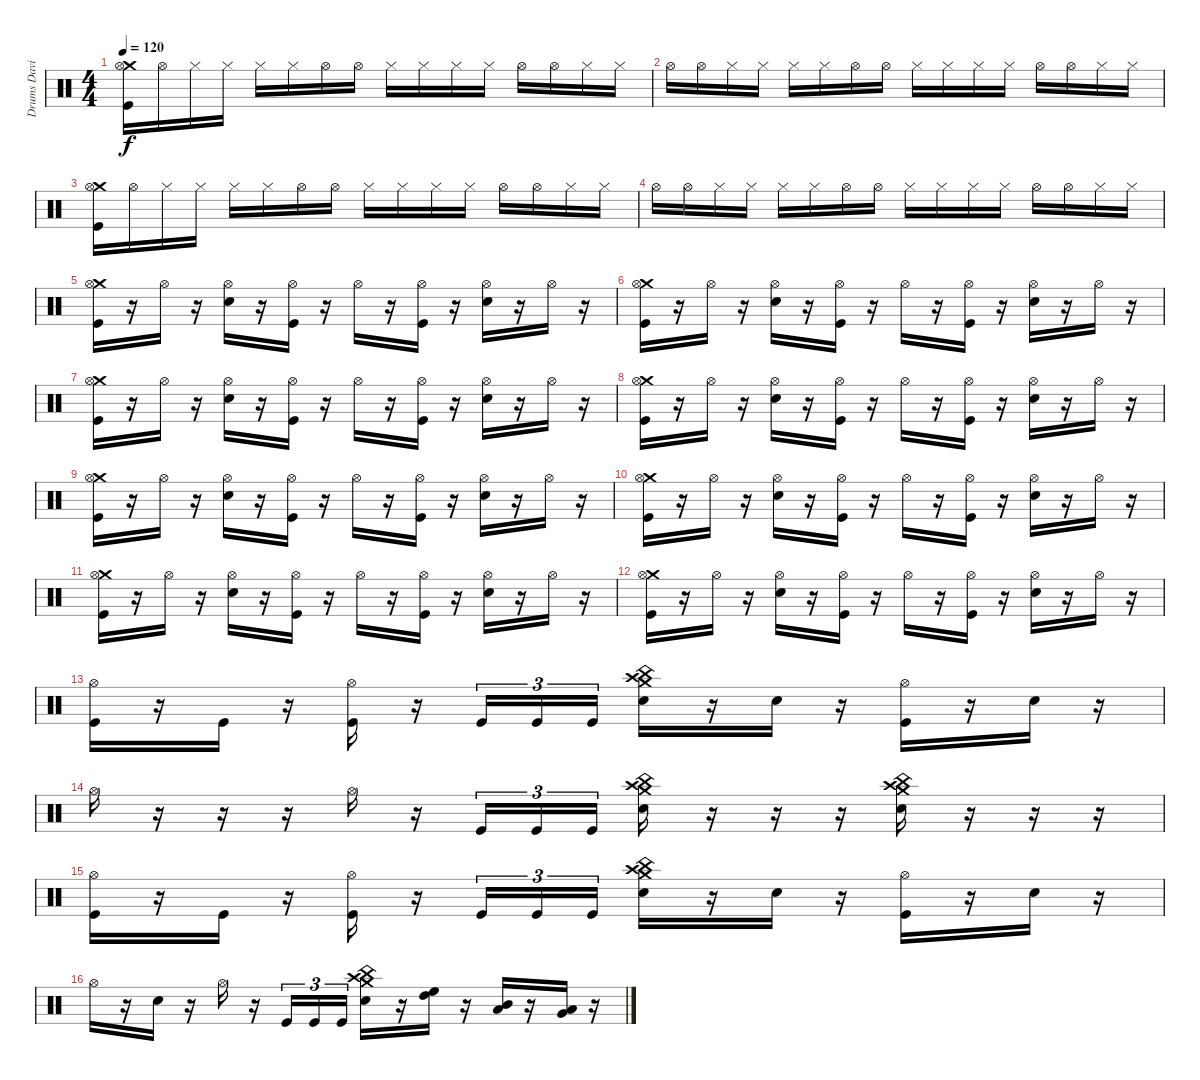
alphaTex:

\track ("Drums David" "Drums Davi") {instrument percussion}
\staff {score}
\articulation defaults
\ts (4 4)
\tempo 120
\clef neutral
\ks c
("Crash medium (hit)" "Hi-Hat (open)" "Kick (hit)").16{dy f} "Hi-Hat (open)".16 "Hi-Hat (closed)".16 "Hi-Hat (closed)".16 "Hi-Hat (closed)".16 "Hi-Hat (closed)".16 "Hi-Hat (open)".16 "Hi-Hat (open)".16 "Hi-Hat (closed)".16 "Hi-Hat (closed)".16 "Hi-Hat (closed)".16 "Hi-Hat (closed)".16 "Hi-Hat (open)".16 "Hi-Hat (open)".16 "Hi-Hat (closed)".16 "Hi-Hat (closed)".16 |
"Hi-Hat (open)".16 "Hi-Hat (open)".16 "Hi-Hat (closed)".16 "Hi-Hat (closed)".16 "Hi-Hat (closed)".16 "Hi-Hat (closed)".16 "Hi-Hat (open)".16 "Hi-Hat (open)".16 "Hi-Hat (closed)".16 "Hi-Hat (closed)".16 "Hi-Hat (closed)".16 "Hi-Hat (closed)".16 "Hi-Hat (open)".16 "Hi-Hat (open)".16 "Hi-Hat (closed)".16 "Hi-Hat (closed)".16 |
("Crash medium (hit)" "Hi-Hat (open)" "Kick (hit)").16 "Hi-Hat (open)".16 "Hi-Hat (closed)".16 "Hi-Hat (closed)".16 "Hi-Hat (closed)".16 "Hi-Hat (closed)".16 "Hi-Hat (open)".16 "Hi-Hat (open)".16 "Hi-Hat (closed)".16 "Hi-Hat (closed)".16 "Hi-Hat (closed)".16 "Hi-Hat (closed)".16 "Hi-Hat (open)".16 "Hi-Hat (open)".16 "Hi-Hat (closed)".16 "Hi-Hat (closed)".16 |
"Hi-Hat (open)".16 "Hi-Hat (open)".16 "Hi-Hat (closed)".16 "Hi-Hat (closed)".16 "Hi-Hat (closed)".16 "Hi-Hat (closed)".16 "Hi-Hat (open)".16 "Hi-Hat (open)".16 "Hi-Hat (closed)".16 "Hi-Hat (closed)".16 "Hi-Hat (closed)".16 "Hi-Hat (closed)".16 "Hi-Hat (open)".16 "Hi-Hat (open)".16 "Hi-Hat (closed)".16 "Hi-Hat (closed)".16 |
("Crash medium (hit)" "Hi-Hat (open)" "Kick (hit)").16 r.16 "Hi-Hat (open)".16 r.16 ("Hi-Hat (open)" "Electric Snare (hit)").16 r.16 ("Hi-Hat (open)" "Kick (hit)").16 r.16 "Hi-Hat (open)".16 r.16 ("Hi-Hat (open)" "Kick (hit)").16 r.16 ("Hi-Hat (open)" "Electric Snare (hit)").16 r.16 "Hi-Hat (open)".16 r.16 |
("Crash medium (hit)" "Hi-Hat (open)" "Kick (hit)").16 r.16 "Hi-Hat (open)".16 r.16 ("Hi-Hat (open)" "Electric Snare (hit)").16 r.16 ("Hi-Hat (open)" "Kick (hit)").16 r.16 "Hi-Hat (open)".16 r.16 ("Hi-Hat (open)" "Kick (hit)").16 r.16 ("Hi-Hat (open)" "Electric Snare (hit)").16 r.16 "Hi-Hat (open)".16 r.16 |
("Crash medium (hit)" "Hi-Hat (open)" "Kick (hit)").16 r.16 "Hi-Hat (open)".16 r.16 ("Hi-Hat (open)" "Electric Snare (hit)").16 r.16 ("Hi-Hat (open)" "Kick (hit)").16 r.16 "Hi-Hat (open)".16 r.16 ("Hi-Hat (open)" "Kick (hit)").16 r.16 ("Hi-Hat (open)" "Electric Snare (hit)").16 r.16 "Hi-Hat (open)".16 r.16 |
("Crash medium (hit)" "Hi-Hat (open)" "Kick (hit)").16 r.16 "Hi-Hat (open)".16 r.16 ("Hi-Hat (open)" "Electric Snare (hit)").16 r.16 ("Hi-Hat (open)" "Kick (hit)").16 r.16 "Hi-Hat (open)".16 r.16 ("Hi-Hat (open)" "Kick (hit)").16 r.16 ("Hi-Hat (open)" "Electric Snare (hit)").16 r.16 "Hi-Hat (open)".16 r.16 |
("Crash medium (hit)" "Hi-Hat (open)" "Kick (hit)").16 r.16 "Hi-Hat (open)".16 r.16 ("Hi-Hat (open)" "Electric Snare (hit)").16 r.16 ("Hi-Hat (open)" "Kick (hit)").16 r.16 "Hi-Hat (open)".16 r.16 ("Hi-Hat (open)" "Kick (hit)").16 r.16 ("Hi-Hat (open)" "Electric Snare (hit)").16 r.16 "Hi-Hat (open)".16 r.16 |
("Crash medium (hit)" "Hi-Hat (open)" "Kick (hit)").16 r.16 "Hi-Hat (open)".16 r.16 ("Hi-Hat (open)" "Electric Snare (hit)").16 r.16 ("Hi-Hat (open)" "Kick (hit)").16 r.16 "Hi-Hat (open)".16 r.16 ("Hi-Hat (open)" "Kick (hit)").16 r.16 ("Hi-Hat (open)" "Electric Snare (hit)").16 r.16 "Hi-Hat (open)".16 r.16 |
("Crash medium (hit)" "Hi-Hat (open)" "Kick (hit)").16 r.16 "Hi-Hat (open)".16 r.16 ("Hi-Hat (open)" "Electric Snare (hit)").16 r.16 ("Hi-Hat (open)" "Kick (hit)").16 r.16 "Hi-Hat (open)".16 r.16 ("Hi-Hat (open)" "Kick (hit)").16 r.16 ("Hi-Hat (open)" "Electric Snare (hit)").16 r.16 "Hi-Hat (open)".16 r.16 |
("Crash medium (hit)" "Hi-Hat (open)" "Kick (hit)").16 r.16 "Hi-Hat (open)".16 r.16 ("Hi-Hat (open)" "Electric Snare (hit)").16 r.16 ("Hi-Hat (open)" "Kick (hit)").16 r.16 "Hi-Hat (open)".16 r.16 ("Hi-Hat (open)" "Kick (hit)").16 r.16 ("Hi-Hat (open)" "Electric Snare (hit)").16 r.16 "Hi-Hat (open)".16 r.16 |
("Hi-Hat (open)" "Kick (hit)").16 r.16 "Kick (hit)".16 r.16 ("Hi-Hat (open)" "Kick (hit)").16 r.16 "Kick (hit)".16{tu (3 2)} "Kick (hit)".16{tu (3 2)} "Kick (hit)".16{tu (3 2)} ("China (hit)" "Crash high (hit)" "Crash medium (hit)" "Electric Snare (hit)").16 r.16 "Electric Snare (hit)".16 r.16 ("Hi-Hat (open)" "Kick (hit)").16 r.16 "Electric Snare (hit)".16 r.16 |
"Hi-Hat (open)".16 r.16 r.16 r.16 "Hi-Hat (open)".16 r.16 "Kick (hit)".16{tu (3 2)} "Kick (hit)".16{tu (3 2)} "Kick (hit)".16{tu (3 2)} ("China (hit)" "Crash high (hit)" "Crash medium (hit)" "Electric Snare (hit)").16 r.16 r.16 r.16 ("China (hit)" "Crash high (hit)" "Crash medium (hit)" "Electric Snare (hit)").16 r.16 r.16 r.16 |
("Hi-Hat (open)" "Kick (hit)").16 r.16 "Kick (hit)".16 r.16 ("Hi-Hat (open)" "Kick (hit)").16 r.16 "Kick (hit)".16{tu (3 2)} "Kick (hit)".16{tu (3 2)} "Kick (hit)".16{tu (3 2)} ("China (hit)" "Crash high (hit)" "Crash medium (hit)" "Electric Snare (hit)").16 r.16 "Electric Snare (hit)".16 r.16 ("Hi-Hat (open)" "Kick (hit)").16 r.16 "Electric Snare (hit)".16 r.16 |
"Hi-Hat (open)".16 r.16 "Electric Snare (hit)".16 r.16 "Hi-Hat (open)".16 r.16 "Kick (hit)".16{tu (3 2)} "Kick (hit)".16{tu (3 2)} "Kick (hit)".16{tu (3 2)} ("China (hit)" "Crash high (hit)" "Crash medium (hit)" "Electric Snare (hit)").16 r.16 ("High Floor Tom (hit)" "High Tom (hit)").16 r.16 ("Mid Tom (hit)" "Low Tom (hit)").16 r.16 ("Very Low Tom (hit)" "Low Floor Tom (hit)").16 r.16
